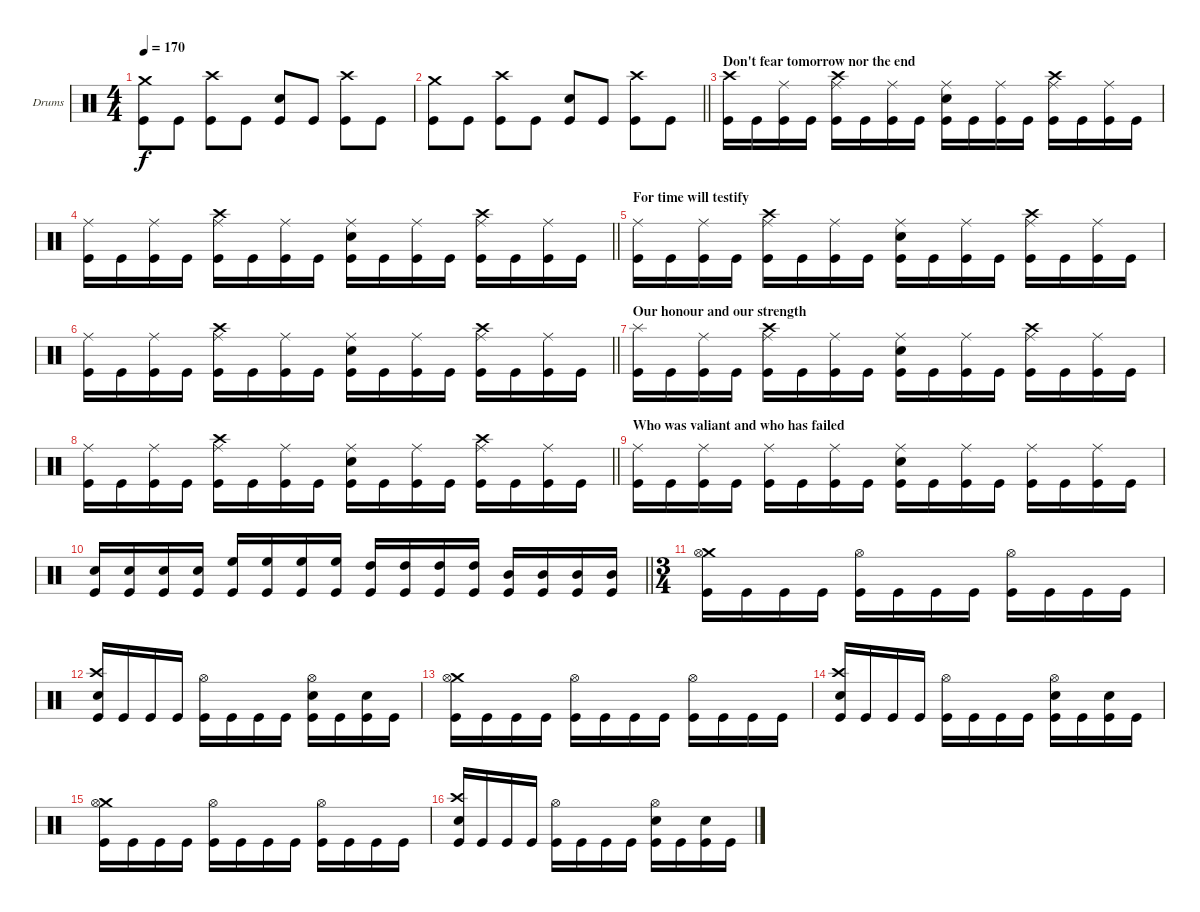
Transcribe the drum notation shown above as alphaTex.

\bracketExtendMode groupsimilarinstruments
\firstSystemTrackNameOrientation horizontal
\otherSystemsTrackNameOrientation horizontal
\track ("Drumkit" "Drums") {instrument percussion}
\staff {score}
\articulation defaults
\ts (4 4)
\tempo 170
\clef neutral
\ks c
("Crash medium (hit)" "Kick (hit)").8{dy f} "Kick (hit)".8 ("Crash high (hit)" "Kick (hit)").8 "Kick (hit)".8 ("Snare (hit) 2" "Kick (hit)").8 "Kick (hit)".8 ("Crash high (hit)" "Kick (hit)").8 "Kick (hit)".8 |
\barLineRight lightlight
("Crash medium (hit)" "Kick (hit)").8 "Kick (hit)".8 ("Crash high (hit)" "Kick (hit)").8 "Kick (hit)".8 ("Snare (hit) 2" "Kick (hit)").8 "Kick (hit)".8 ("Crash high (hit)" "Kick (hit)").8 "Kick (hit)".8 |
\section ("" "Don't fear tomorrow nor the end")
("Crash high (hit)" "Kick (hit)").16 "Kick (hit)".16 ("Ride (middle)" "Kick (hit)").16 "Kick (hit)".16 ("Crash high (hit)" "Ride (middle)" "Kick (hit)").16 "Kick (hit)".16 ("Ride (middle)" "Kick (hit)").16 "Kick (hit)".16 ("Ride (middle)" "Snare (hit) 2" "Kick (hit)").16 "Kick (hit)".16 ("Ride (middle)" "Kick (hit)").16 "Kick (hit)".16 ("Crash high (hit)" "Ride (middle)" "Kick (hit)").16 "Kick (hit)".16 ("Ride (middle)" "Kick (hit)").16 "Kick (hit)".16 |
\barLineRight lightlight
("Ride (middle)" "Kick (hit)").16 "Kick (hit)".16 ("Ride (middle)" "Kick (hit)").16 "Kick (hit)".16 ("Crash high (hit)" "Ride (middle)" "Kick (hit)").16 "Kick (hit)".16 ("Ride (middle)" "Kick (hit)").16 "Kick (hit)".16 ("Ride (middle)" "Snare (hit) 2" "Kick (hit)").16 "Kick (hit)".16 ("Ride (middle)" "Kick (hit)").16 "Kick (hit)".16 ("Crash high (hit)" "Ride (middle)" "Kick (hit)").16 "Kick (hit)".16 ("Ride (middle)" "Kick (hit)").16 "Kick (hit)".16 |
\section ("" "For time will testify")
("Ride (middle)" "Kick (hit)").16 "Kick (hit)".16 ("Ride (middle)" "Kick (hit)").16 "Kick (hit)".16 ("Crash high (hit)" "Ride (middle)" "Kick (hit)").16 "Kick (hit)".16 ("Ride (middle)" "Kick (hit)").16 "Kick (hit)".16 ("Ride (middle)" "Snare (hit) 2" "Kick (hit)").16 "Kick (hit)".16 ("Ride (middle)" "Kick (hit)").16 "Kick (hit)".16 ("Crash high (hit)" "Ride (middle)" "Kick (hit)").16 "Kick (hit)".16 ("Ride (middle)" "Kick (hit)").16 "Kick (hit)".16 |
\barLineRight lightlight
("Ride (middle)" "Kick (hit)").16 "Kick (hit)".16 ("Ride (middle)" "Kick (hit)").16 "Kick (hit)".16 ("Crash high (hit)" "Ride (middle)" "Kick (hit)").16 "Kick (hit)".16 ("Ride (middle)" "Kick (hit)").16 "Kick (hit)".16 ("Ride (middle)" "Snare (hit) 2" "Kick (hit)").16 "Kick (hit)".16 ("Ride (middle)" "Kick (hit)").16 "Kick (hit)".16 ("Crash high (hit)" "Ride (middle)" "Kick (hit)").16 "Kick (hit)".16 ("Ride (middle)" "Kick (hit)").16 "Kick (hit)".16 |
\section ("" "Our honour and our strength")
("Splash (hit)" "Kick (hit)").16 "Kick (hit)".16 ("Ride (middle)" "Kick (hit)").16 "Kick (hit)".16 ("Crash high (hit)" "Ride (middle)" "Kick (hit)").16 "Kick (hit)".16 ("Ride (middle)" "Kick (hit)").16 "Kick (hit)".16 ("Ride (middle)" "Snare (hit) 2" "Kick (hit)").16 "Kick (hit)".16 ("Ride (middle)" "Kick (hit)").16 "Kick (hit)".16 ("Crash high (hit)" "Ride (middle)" "Kick (hit)").16 "Kick (hit)".16 ("Ride (middle)" "Kick (hit)").16 "Kick (hit)".16 |
\barLineRight lightlight
("Ride (middle)" "Kick (hit)").16 "Kick (hit)".16 ("Ride (middle)" "Kick (hit)").16 "Kick (hit)".16 ("Crash high (hit)" "Ride (middle)" "Kick (hit)").16 "Kick (hit)".16 ("Ride (middle)" "Kick (hit)").16 "Kick (hit)".16 ("Ride (middle)" "Snare (hit) 2" "Kick (hit)").16 "Kick (hit)".16 ("Ride (middle)" "Kick (hit)").16 "Kick (hit)".16 ("Crash high (hit)" "Ride (middle)" "Kick (hit)").16 "Kick (hit)".16 ("Ride (middle)" "Kick (hit)").16 "Kick (hit)".16 |
\section ("" "Who was valiant and who has failed")
("Ride (middle)" "Kick (hit)").16 "Kick (hit)".16 ("Ride (middle)" "Kick (hit)").16 "Kick (hit)".16 ("Ride (middle)" "Kick (hit)").16 "Kick (hit)".16 ("Ride (middle)" "Kick (hit)").16 "Kick (hit)".16 ("Ride (middle)" "Snare (hit) 2" "Kick (hit)").16 "Kick (hit)".16 ("Ride (middle)" "Kick (hit)").16 "Kick (hit)".16 ("Ride (middle)" "Kick (hit)").16 "Kick (hit)".16 ("Ride (middle)" "Kick (hit)").16 "Kick (hit)".16 |
\barLineRight lightlight
("Snare (hit) 2" "Kick (hit)").16 ("Snare (hit) 2" "Kick (hit)").16 ("Snare (hit) 2" "Kick (hit)").16 ("Snare (hit) 2" "Kick (hit)").16 ("High Floor Tom (hit)" "Kick (hit)").16 ("High Floor Tom (hit)" "Kick (hit)").16 ("High Floor Tom (hit)" "Kick (hit)").16 ("High Floor Tom (hit)" "Kick (hit)").16 ("High Tom (hit)" "Kick (hit)").16 ("High Tom (hit)" "Kick (hit)").16 ("High Tom (hit)" "Kick (hit)").16 ("High Tom (hit)" "Kick (hit)").16 ("Mid Tom (hit)" "Kick (hit)").16 ("Mid Tom (hit)" "Kick (hit)").16 ("Mid Tom (hit)" "Kick (hit)").16 ("Mid Tom (hit)" "Kick (hit)").16 |
\ts (3 4)
\beaming (8 2 2 2)
("Crash medium (hit)" "Hi-Hat (open)" "Kick (hit)").16 "Kick (hit)".16 "Kick (hit)".16 "Kick (hit)".16 ("Hi-Hat (open)" "Kick (hit)").16 "Kick (hit)".16 "Kick (hit)".16 "Kick (hit)".16 ("Hi-Hat (open)" "Kick (hit)").16 "Kick (hit)".16 "Kick (hit)".16 "Kick (hit)".16 |
("Crash high (hit)" "Snare (hit) 2" "Kick (hit)").16 "Kick (hit)".16 "Kick (hit)".16 "Kick (hit)".16 ("Hi-Hat (open)" "Kick (hit)").16 "Kick (hit)".16 "Kick (hit)".16 "Kick (hit)".16 ("Hi-Hat (open)" "Snare (hit) 2" "Kick (hit)").16 "Kick (hit)".16 ("Snare (hit) 2" "Kick (hit)").16 "Kick (hit)".16 |
("Crash medium (hit)" "Hi-Hat (open)" "Kick (hit)").16 "Kick (hit)".16 "Kick (hit)".16 "Kick (hit)".16 ("Hi-Hat (open)" "Kick (hit)").16 "Kick (hit)".16 "Kick (hit)".16 "Kick (hit)".16 ("Hi-Hat (open)" "Kick (hit)").16 "Kick (hit)".16 "Kick (hit)".16 "Kick (hit)".16 |
("Crash high (hit)" "Snare (hit) 2" "Kick (hit)").16 "Kick (hit)".16 "Kick (hit)".16 "Kick (hit)".16 ("Hi-Hat (open)" "Kick (hit)").16 "Kick (hit)".16 "Kick (hit)".16 "Kick (hit)".16 ("Hi-Hat (open)" "Snare (hit) 2" "Kick (hit)").16 "Kick (hit)".16 ("Snare (hit) 2" "Kick (hit)").16 "Kick (hit)".16 |
("Crash medium (hit)" "Hi-Hat (open)" "Kick (hit)").16 "Kick (hit)".16 "Kick (hit)".16 "Kick (hit)".16 ("Hi-Hat (open)" "Kick (hit)").16 "Kick (hit)".16 "Kick (hit)".16 "Kick (hit)".16 ("Hi-Hat (open)" "Kick (hit)").16 "Kick (hit)".16 "Kick (hit)".16 "Kick (hit)".16 |
("Crash high (hit)" "Snare (hit) 2" "Kick (hit)").16 "Kick (hit)".16 "Kick (hit)".16 "Kick (hit)".16 ("Hi-Hat (open)" "Kick (hit)").16 "Kick (hit)".16 "Kick (hit)".16 "Kick (hit)".16 ("Hi-Hat (open)" "Snare (hit) 2" "Kick (hit)").16 "Kick (hit)".16 ("Snare (hit) 2" "Kick (hit)").16 "Kick (hit)".16
